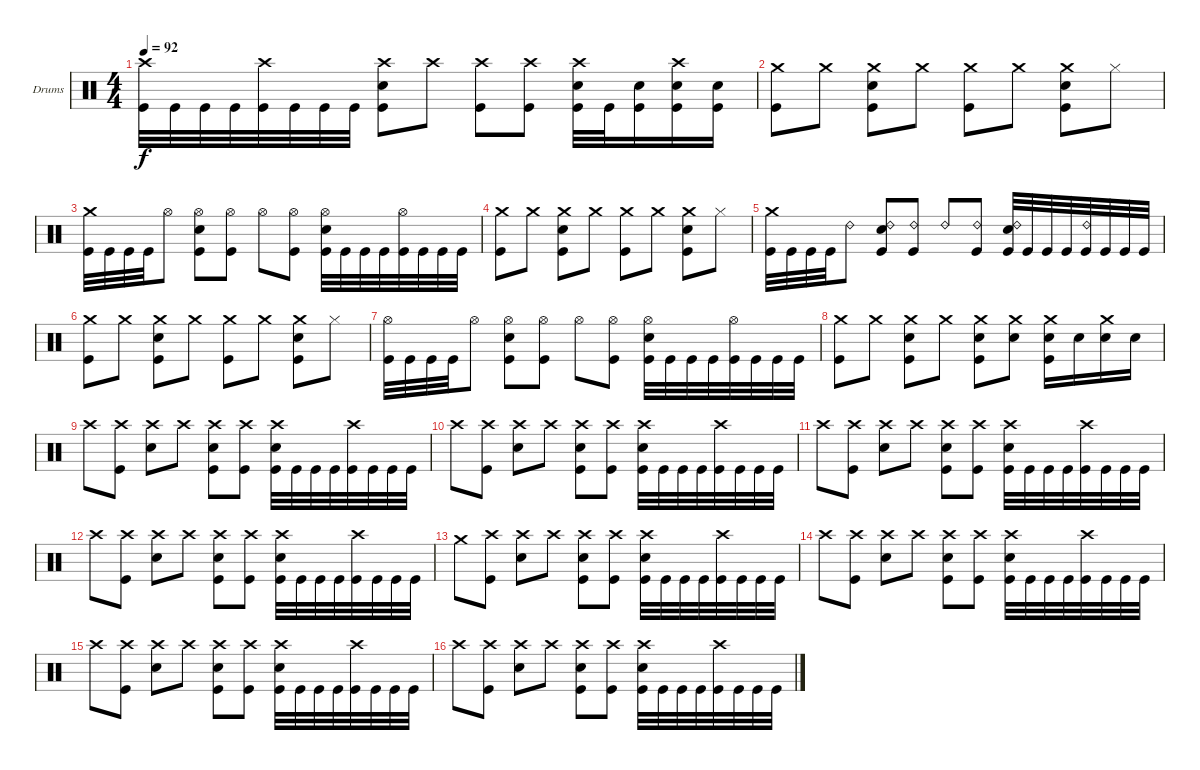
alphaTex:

\bracketExtendMode groupsimilarinstruments
\firstSystemTrackNameOrientation horizontal
\otherSystemsTrackNameOrientation horizontal
\track ("Drumkit" "Drums") {instrument percussion}
\staff {score}
\articulation defaults
\ts (4 4)
\tempo 92
\clef neutral
\ks c
("Crash high (hit)" "Kick (hit)").32{dy f} "Kick (hit)".32 "Kick (hit)".32 "Kick (hit)".32 ("Crash high (hit)" "Kick (hit)").32 "Kick (hit)".32 "Kick (hit)".32 "Kick (hit)".32 ("Crash high (hit)" "Snare (hit) 2" "Kick (hit)").8 "Crash high (hit)".8 ("Crash high (hit)" "Kick (hit)").8 ("Crash high (hit)" "Kick (hit)").8 ("Crash high (hit)" "Snare (hit) 2" "Kick (hit)").32 "Kick (hit)".32 ("Snare (hit) 2" "Kick (hit)").16 ("Crash high (hit)" "Snare (hit) 2" "Kick (hit)").16 ("Snare (hit) 2" "Kick (hit)").16 |
("Crash medium (hit)" "Kick (hit)").8 "Crash medium (hit)".8 ("Crash medium (hit)" "Snare (hit) 2" "Kick (hit)").8 "Crash medium (hit)".8 ("Crash medium (hit)" "Kick (hit)").8 "Crash medium (hit)".8 ("Crash medium (hit)" "Snare (hit) 2" "Kick (hit)").8 "Hi-Hat (closed)".8 |
("Crash medium (hit)" "Kick (hit)").32 "Kick (hit)".32 "Kick (hit)".32 "Kick (hit)".32 "Hi-Hat (open)".8 ("Hi-Hat (open)" "Snare (hit) 2" "Kick (hit)").8 ("Hi-Hat (open)" "Kick (hit)").8 "Hi-Hat (open)".8 ("Hi-Hat (open)" "Kick (hit)").8 ("Hi-Hat (open)" "Snare (hit) 2" "Kick (hit)").32 "Kick (hit)".32 "Kick (hit)".32 "Kick (hit)".32 ("Hi-Hat (open)" "Kick (hit)").32 "Kick (hit)".32 "Kick (hit)".32 "Kick (hit)".32 |
("Crash medium (hit)" "Kick (hit)").8 "Crash medium (hit)".8 ("Crash medium (hit)" "Snare (hit) 2" "Kick (hit)").8 "Crash medium (hit)".8 ("Crash medium (hit)" "Kick (hit)").8 "Crash medium (hit)".8 ("Crash medium (hit)" "Snare (hit) 2" "Kick (hit)").8 "Hi-Hat (closed)".8 |
("Crash medium (hit)" "Kick (hit)").32 "Kick (hit)".32 "Kick (hit)".32 "Kick (hit)".32 "Ride (bell) 2".8 ("Ride (bell) 2" "Snare (hit) 2" "Kick (hit)").8 ("Ride (bell) 2" "Kick (hit)").8 "Ride (bell) 2".8 ("Ride (bell) 2" "Kick (hit)").8 ("Ride (bell) 2" "Snare (hit) 2" "Kick (hit)").32 "Kick (hit)".32 "Kick (hit)".32 "Kick (hit)".32 ("Ride (bell) 2" "Kick (hit)").32 "Kick (hit)".32 "Kick (hit)".32 "Kick (hit)".32 |
("Crash medium (hit)" "Kick (hit)").8 "Crash medium (hit)".8 ("Crash medium (hit)" "Snare (hit) 2" "Kick (hit)").8 "Crash medium (hit)".8 ("Crash medium (hit)" "Kick (hit)").8 "Crash medium (hit)".8 ("Crash medium (hit)" "Snare (hit) 2" "Kick (hit)").8 "Hi-Hat (closed)".8 |
("Hi-Hat (open)" "Kick (hit)").32 "Kick (hit)".32 "Kick (hit)".32 "Kick (hit)".32 "Hi-Hat (open)".8 ("Hi-Hat (open)" "Snare (hit) 2" "Kick (hit)").8 ("Hi-Hat (open)" "Kick (hit)").8 "Hi-Hat (open)".8 ("Hi-Hat (open)" "Kick (hit)").8 ("Hi-Hat (open)" "Snare (hit) 2" "Kick (hit)").32 "Kick (hit)".32 "Kick (hit)".32 "Kick (hit)".32 ("Hi-Hat (open)" "Kick (hit)").32 "Kick (hit)".32 "Kick (hit)".32 "Kick (hit)".32 |
("Crash medium (hit)" "Kick (hit)").8 "Crash medium (hit)".8 ("Crash medium (hit)" "Snare (hit) 2" "Kick (hit)").8 "Crash medium (hit)".8 ("Crash medium (hit)" "Snare (hit) 2" "Kick (hit)").8 ("Crash medium (hit)" "Snare (hit) 2").8 ("Crash medium (hit)" "Snare (hit) 2" "Kick (hit)").16 "Snare (hit) 2".16 ("Crash medium (hit)" "Snare (hit) 2").16 "Snare (hit) 2".16 |
"Crash high (hit)".8 ("Crash high (hit)" "Kick (hit)").8 ("Crash high (hit)" "Snare (hit) 2").8 "Crash high (hit)".8 ("Crash high (hit)" "Snare (hit) 2" "Kick (hit)").8 ("Crash high (hit)" "Kick (hit)").8 ("Crash high (hit)" "Snare (hit) 2" "Kick (hit)").32 "Kick (hit)".32 "Kick (hit)".32 "Kick (hit)".32 ("Crash high (hit)" "Kick (hit)").32 "Kick (hit)".32 "Kick (hit)".32 "Kick (hit)".32 |
"Crash high (hit)".8 ("Crash high (hit)" "Kick (hit)").8 ("Crash high (hit)" "Snare (hit) 2").8 "Crash high (hit)".8 ("Crash high (hit)" "Snare (hit) 2" "Kick (hit)").8 ("Crash high (hit)" "Kick (hit)").8 ("Crash high (hit)" "Snare (hit) 2" "Kick (hit)").32 "Kick (hit)".32 "Kick (hit)".32 "Kick (hit)".32 ("Crash high (hit)" "Kick (hit)").32 "Kick (hit)".32 "Kick (hit)".32 "Kick (hit)".32 |
"Crash high (hit)".8 ("Crash high (hit)" "Kick (hit)").8 ("Crash high (hit)" "Snare (hit) 2").8 "Crash high (hit)".8 ("Crash high (hit)" "Snare (hit) 2" "Kick (hit)").8 ("Crash high (hit)" "Kick (hit)").8 ("Crash high (hit)" "Snare (hit) 2" "Kick (hit)").32 "Kick (hit)".32 "Kick (hit)".32 "Kick (hit)".32 ("Crash high (hit)" "Kick (hit)").32 "Kick (hit)".32 "Kick (hit)".32 "Kick (hit)".32 |
"Crash high (hit)".8 ("Crash high (hit)" "Kick (hit)").8 ("Crash high (hit)" "Snare (hit) 2").8 "Crash high (hit)".8 ("Crash high (hit)" "Snare (hit) 2" "Kick (hit)").8 ("Crash high (hit)" "Kick (hit)").8 ("Crash high (hit)" "Snare (hit) 2" "Kick (hit)").32 "Kick (hit)".32 "Kick (hit)".32 "Kick (hit)".32 ("Crash high (hit)" "Kick (hit)").32 "Kick (hit)".32 "Kick (hit)".32 "Kick (hit)".32 |
"Crash medium (hit)".8 ("Crash high (hit)" "Kick (hit)").8 ("Crash high (hit)" "Snare (hit) 2").8 "Crash high (hit)".8 ("Crash high (hit)" "Snare (hit) 2" "Kick (hit)").8 ("Crash high (hit)" "Kick (hit)").8 ("Crash high (hit)" "Snare (hit) 2" "Kick (hit)").32 "Kick (hit)".32 "Kick (hit)".32 "Kick (hit)".32 ("Crash high (hit)" "Kick (hit)").32 "Kick (hit)".32 "Kick (hit)".32 "Kick (hit)".32 |
"Crash high (hit)".8 ("Crash high (hit)" "Kick (hit)").8 ("Crash high (hit)" "Snare (hit) 2").8 "Crash high (hit)".8 ("Crash high (hit)" "Snare (hit) 2" "Kick (hit)").8 ("Crash high (hit)" "Kick (hit)").8 ("Crash high (hit)" "Snare (hit) 2" "Kick (hit)").32 "Kick (hit)".32 "Kick (hit)".32 "Kick (hit)".32 ("Crash high (hit)" "Kick (hit)").32 "Kick (hit)".32 "Kick (hit)".32 "Kick (hit)".32 |
"Crash high (hit)".8 ("Crash high (hit)" "Kick (hit)").8 ("Crash high (hit)" "Snare (hit) 2").8 "Crash high (hit)".8 ("Crash high (hit)" "Snare (hit) 2" "Kick (hit)").8 ("Crash high (hit)" "Kick (hit)").8 ("Crash high (hit)" "Snare (hit) 2" "Kick (hit)").32 "Kick (hit)".32 "Kick (hit)".32 "Kick (hit)".32 ("Crash high (hit)" "Kick (hit)").32 "Kick (hit)".32 "Kick (hit)".32 "Kick (hit)".32 |
"Crash high (hit)".8 ("Crash high (hit)" "Kick (hit)").8 ("Crash high (hit)" "Snare (hit) 2").8 "Crash high (hit)".8 ("Crash high (hit)" "Snare (hit) 2" "Kick (hit)").8 ("Crash high (hit)" "Kick (hit)").8 ("Crash high (hit)" "Snare (hit) 2" "Kick (hit)").32 "Kick (hit)".32 "Kick (hit)".32 "Kick (hit)".32 ("Crash high (hit)" "Kick (hit)").32 "Kick (hit)".32 "Kick (hit)".32 "Kick (hit)".32
